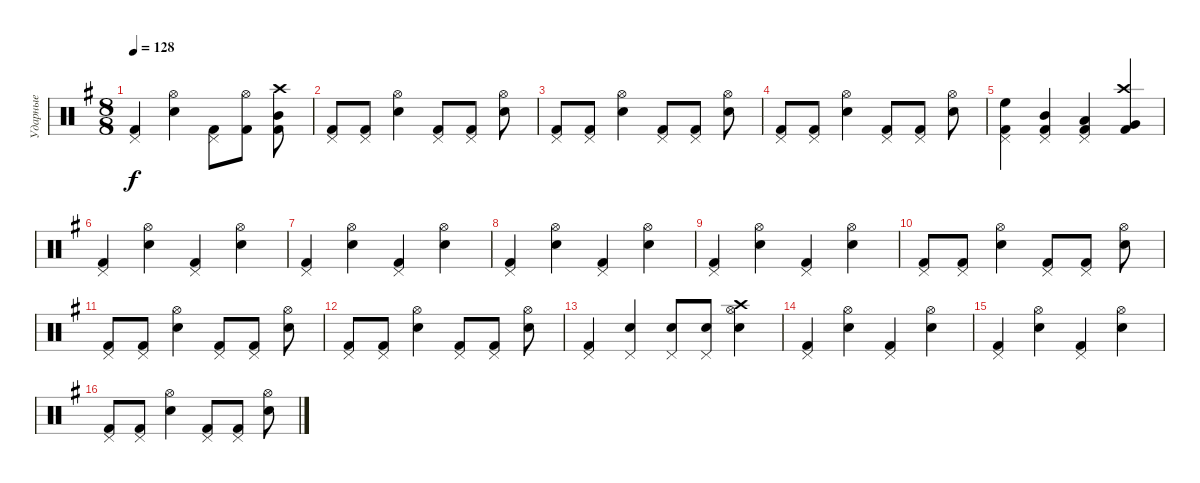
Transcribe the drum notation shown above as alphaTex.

\track ("Ударные" "Ударные") {instrument percussion}
\staff {score}
\articulation defaults
\ts (8 8)
\tempo 128
\clef neutral
\ks g
("Kick (hit) 2" "Pedal Hi-Hat (hit)").4{dy f} ("Electric Snare (hit)" "Hi-Hat (open)").4 ("Kick (hit) 2" "Pedal Hi-Hat (hit)").8 ("Kick (hit) 2" "Hi-Hat (open)").8 ("Kick (hit) 2" "Mid Tom (hit)" "Crash high (hit)").8 |
("Kick (hit) 2" "Pedal Hi-Hat (hit)").8 ("Kick (hit) 2" "Pedal Hi-Hat (hit)").8 ("Electric Snare (hit)" "Hi-Hat (open)").4 ("Kick (hit) 2" "Pedal Hi-Hat (hit)").8 ("Kick (hit) 2" "Pedal Hi-Hat (hit)").8 ("Electric Snare (hit)" "Hi-Hat (open)").8 |
("Kick (hit) 2" "Pedal Hi-Hat (hit)").8 ("Kick (hit) 2" "Pedal Hi-Hat (hit)").8 ("Electric Snare (hit)" "Hi-Hat (open)").4 ("Kick (hit) 2" "Pedal Hi-Hat (hit)").8 ("Kick (hit) 2" "Pedal Hi-Hat (hit)").8 ("Electric Snare (hit)" "Hi-Hat (open)").8 |
("Kick (hit) 2" "Pedal Hi-Hat (hit)").8 ("Kick (hit) 2" "Pedal Hi-Hat (hit)").8 ("Electric Snare (hit)" "Hi-Hat (open)").4 ("Kick (hit) 2" "Pedal Hi-Hat (hit)").8 ("Kick (hit) 2" "Pedal Hi-Hat (hit)").8 ("Electric Snare (hit)" "Hi-Hat (open)").8 |
("Kick (hit) 2" "Pedal Hi-Hat (hit)" "High Floor Tom (hit)").4 ("Kick (hit) 2" "Pedal Hi-Hat (hit)" "Mid Tom (hit)").4 ("Kick (hit) 2" "Pedal Hi-Hat (hit)" "Low Tom (hit)").4 ("Kick (hit) 2" "Crash high (hit)" "Very Low Tom (hit)").4 |
("Kick (hit) 2" "Pedal Hi-Hat (hit)").4 ("Electric Snare (hit)" "Hi-Hat (open)").4 ("Kick (hit) 2" "Pedal Hi-Hat (hit)").4 ("Electric Snare (hit)" "Hi-Hat (open)").4 |
("Kick (hit) 2" "Pedal Hi-Hat (hit)").4 ("Electric Snare (hit)" "Hi-Hat (open)").4 ("Kick (hit) 2" "Pedal Hi-Hat (hit)").4 ("Electric Snare (hit)" "Hi-Hat (open)").4 |
("Kick (hit) 2" "Pedal Hi-Hat (hit)").4 ("Electric Snare (hit)" "Hi-Hat (open)").4 ("Kick (hit) 2" "Pedal Hi-Hat (hit)").4 ("Electric Snare (hit)" "Hi-Hat (open)").4 |
("Kick (hit) 2" "Pedal Hi-Hat (hit)").4 ("Electric Snare (hit)" "Hi-Hat (open)").4 ("Kick (hit) 2" "Pedal Hi-Hat (hit)").4 ("Electric Snare (hit)" "Hi-Hat (open)").4 |
("Kick (hit) 2" "Pedal Hi-Hat (hit)").8 ("Kick (hit) 2" "Pedal Hi-Hat (hit)").8 ("Electric Snare (hit)" "Hi-Hat (open)").4 ("Kick (hit) 2" "Pedal Hi-Hat (hit)").8 ("Kick (hit) 2" "Pedal Hi-Hat (hit)").8 ("Electric Snare (hit)" "Hi-Hat (open)").8 |
("Kick (hit) 2" "Pedal Hi-Hat (hit)").8 ("Kick (hit) 2" "Pedal Hi-Hat (hit)").8 ("Electric Snare (hit)" "Hi-Hat (open)").4 ("Kick (hit) 2" "Pedal Hi-Hat (hit)").8 ("Kick (hit) 2" "Pedal Hi-Hat (hit)").8 ("Electric Snare (hit)" "Hi-Hat (open)").8 |
("Kick (hit) 2" "Pedal Hi-Hat (hit)").8 ("Kick (hit) 2" "Pedal Hi-Hat (hit)").8 ("Electric Snare (hit)" "Hi-Hat (open)").4 ("Kick (hit) 2" "Pedal Hi-Hat (hit)").8 ("Kick (hit) 2" "Pedal Hi-Hat (hit)").8 ("Electric Snare (hit)" "Hi-Hat (open)").8 |
("Kick (hit) 2" "Pedal Hi-Hat (hit)").4 ("Electric Snare (hit)" "Pedal Hi-Hat (hit)").4 ("Electric Snare (hit)" "Pedal Hi-Hat (hit)").8 ("Electric Snare (hit)" "Pedal Hi-Hat (hit)").8 ("Electric Snare (hit)" "Hi-Hat (open)" "Crash high (hit)").4 |
("Kick (hit) 2" "Pedal Hi-Hat (hit)").4 ("Electric Snare (hit)" "Hi-Hat (open)").4 ("Kick (hit) 2" "Pedal Hi-Hat (hit)").4 ("Electric Snare (hit)" "Hi-Hat (open)").4 |
("Kick (hit) 2" "Pedal Hi-Hat (hit)").4 ("Electric Snare (hit)" "Hi-Hat (open)").4 ("Kick (hit) 2" "Pedal Hi-Hat (hit)").4 ("Electric Snare (hit)" "Hi-Hat (open)").4 |
("Kick (hit) 2" "Pedal Hi-Hat (hit)").8 ("Kick (hit) 2" "Pedal Hi-Hat (hit)").8 ("Electric Snare (hit)" "Hi-Hat (open)").4 ("Kick (hit) 2" "Pedal Hi-Hat (hit)").8 ("Kick (hit) 2" "Pedal Hi-Hat (hit)").8 ("Electric Snare (hit)" "Hi-Hat (open)").8
